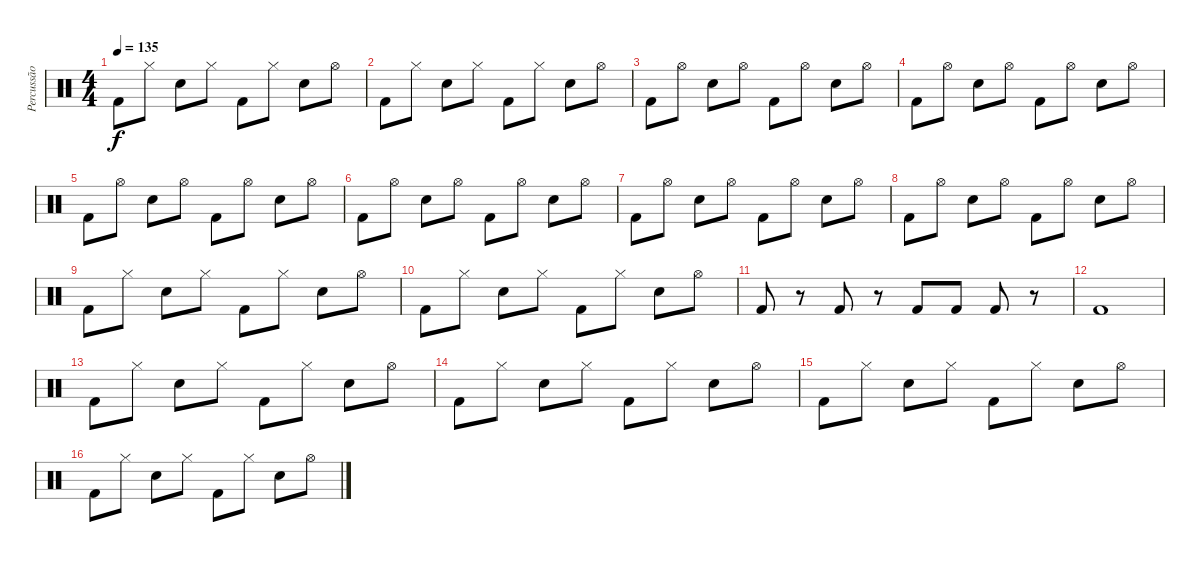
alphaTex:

\track ("Percussão" "Percussão") {instrument percussion}
\staff {score}
\articulation defaults
\ts (4 4)
\tempo 135
\clef neutral
\ks c "Kick (hit) 2".8{dy f} "Hi-Hat (closed)".8 "Electric Snare (hit)".8 "Hi-Hat (closed)".8 "Kick (hit) 2".8 "Hi-Hat (closed)".8 "Electric Snare (hit)".8 "Hi-Hat (open)".8
|
"Kick (hit) 2".8 "Hi-Hat (closed)".8 "Electric Snare (hit)".8 "Hi-Hat (closed)".8 "Kick (hit) 2".8 "Hi-Hat (closed)".8 "Electric Snare (hit)".8 "Hi-Hat (open)".8 |
"Kick (hit) 2".8 "Hi-Hat (open)".8 "Electric Snare (hit)".8 "Hi-Hat (open)".8 "Kick (hit) 2".8 "Hi-Hat (open)".8 "Electric Snare (hit)".8 "Hi-Hat (open)".8 |
"Kick (hit) 2".8 "Hi-Hat (open)".8 "Electric Snare (hit)".8 "Hi-Hat (open)".8 "Kick (hit) 2".8 "Hi-Hat (open)".8 "Electric Snare (hit)".8 "Hi-Hat (open)".8 |
"Kick (hit) 2".8 "Hi-Hat (open)".8 "Electric Snare (hit)".8 "Hi-Hat (open)".8 "Kick (hit) 2".8 "Hi-Hat (open)".8 "Electric Snare (hit)".8 "Hi-Hat (open)".8 |
"Kick (hit) 2".8 "Hi-Hat (open)".8 "Electric Snare (hit)".8 "Hi-Hat (open)".8 "Kick (hit) 2".8 "Hi-Hat (open)".8 "Electric Snare (hit)".8 "Hi-Hat (open)".8 |
"Kick (hit) 2".8 "Hi-Hat (open)".8 "Electric Snare (hit)".8 "Hi-Hat (open)".8 "Kick (hit) 2".8 "Hi-Hat (open)".8 "Electric Snare (hit)".8 "Hi-Hat (open)".8 |
"Kick (hit) 2".8 "Hi-Hat (open)".8 "Electric Snare (hit)".8 "Hi-Hat (open)".8 "Kick (hit) 2".8 "Hi-Hat (open)".8 "Electric Snare (hit)".8 "Hi-Hat (open)".8 |
"Kick (hit) 2".8 "Hi-Hat (closed)".8 "Electric Snare (hit)".8 "Hi-Hat (closed)".8 "Kick (hit) 2".8 "Hi-Hat (closed)".8 "Electric Snare (hit)".8 "Hi-Hat (open)".8 |
"Kick (hit) 2".8 "Hi-Hat (closed)".8 "Electric Snare (hit)".8 "Hi-Hat (closed)".8 "Kick (hit) 2".8 "Hi-Hat (closed)".8 "Electric Snare (hit)".8 "Hi-Hat (open)".8 |
"Kick (hit) 2".8 r.8 "Kick (hit) 2".8 r.8 "Kick (hit) 2".8 "Kick (hit) 2".8 "Kick (hit) 2".8 r.8 |
"Kick (hit) 2".1 |
"Kick (hit) 2".8 "Hi-Hat (closed)".8 "Electric Snare (hit)".8 "Hi-Hat (closed)".8 "Kick (hit) 2".8 "Hi-Hat (closed)".8 "Electric Snare (hit)".8 "Hi-Hat (open)".8 |
"Kick (hit) 2".8 "Hi-Hat (closed)".8 "Electric Snare (hit)".8 "Hi-Hat (closed)".8 "Kick (hit) 2".8 "Hi-Hat (closed)".8 "Electric Snare (hit)".8 "Hi-Hat (open)".8 |
"Kick (hit) 2".8 "Hi-Hat (closed)".8 "Electric Snare (hit)".8 "Hi-Hat (closed)".8 "Kick (hit) 2".8 "Hi-Hat (closed)".8 "Electric Snare (hit)".8 "Hi-Hat (open)".8 |
"Kick (hit) 2".8 "Hi-Hat (closed)".8 "Electric Snare (hit)".8 "Hi-Hat (closed)".8 "Kick (hit) 2".8 "Hi-Hat (closed)".8 "Electric Snare (hit)".8 "Hi-Hat (open)".8
